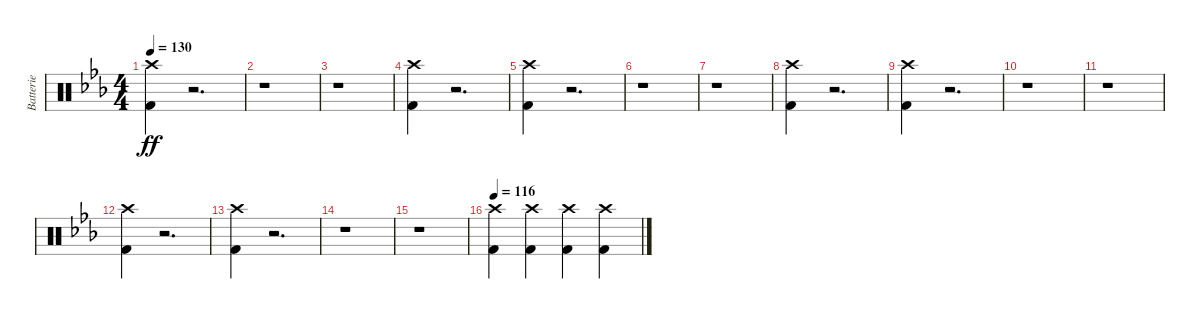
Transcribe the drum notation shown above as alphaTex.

\track ("Batterie" "Batterie") {instrument percussion}
\staff {score}
\articulation defaults
\ts (4 4)
\tempo 130
\clef neutral
\ks eb
("Crash high (hit)" "Kick (hit) 2").4{dy ff} r.2{d} |
r.1 |
r.1 |
("Crash high (hit)" "Kick (hit) 2").4 r.2{d} |
("Crash high (hit)" "Kick (hit) 2").4 r.2{d} |
r.1 |
r.1 |
("Crash high (hit)" "Kick (hit) 2").4 r.2{d} |
("Crash high (hit)" "Kick (hit) 2").4 r.2{d} |
r.1 |
r.1 |
("Crash high (hit)" "Kick (hit) 2").4 r.2{d} |
("Crash high (hit)" "Kick (hit) 2").4 r.2{d} |
r.1 |
r.1 |
\tempo 116
("Crash high (hit)" "Kick (hit) 2").4 ("Crash high (hit)" "Kick (hit) 2").4 ("Crash high (hit)" "Kick (hit) 2").4 ("Crash high (hit)" "Kick (hit) 2").4
